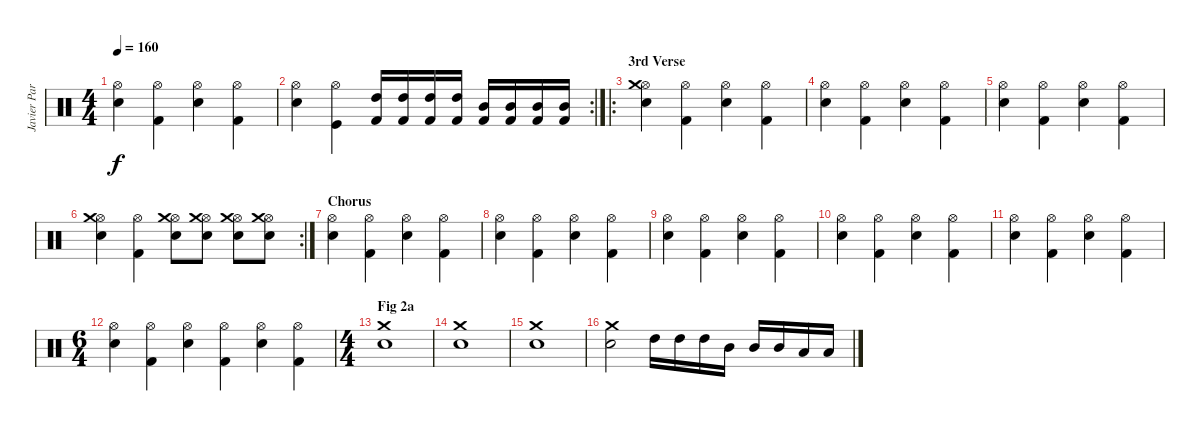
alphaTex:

\track ("Javier Partida" "Javier Par") {instrument percussion}
\staff {score}
\articulation defaults
\ts (4 4)
\tempo 160
\clef neutral
\ks c
("Hi-Hat (open)" "Snare (hit) 2").4{dy f} ("Hi-Hat (open)" "Kick (hit) 2").4 ("Hi-Hat (open)" "Snare (hit) 2").4 ("Hi-Hat (open)" "Kick (hit) 2").4 |
\rc 2
("Hi-Hat (open)" "Snare (hit) 2").4 ("Hi-Hat (open)" "Kick (hit)").4 ("Kick (hit) 2" "High Tom (hit)").16 ("Kick (hit) 2" "High Tom (hit)").16 ("Kick (hit) 2" "High Tom (hit)").16 ("Kick (hit) 2" "High Tom (hit)").16 ("Kick (hit) 2" "Mid Tom (hit)").16 ("Kick (hit) 2" "Mid Tom (hit)").16 ("Kick (hit) 2" "Mid Tom (hit)").16 ("Kick (hit) 2" "Mid Tom (hit)").16 |
\ro
\section ("" "3rd Verse")
("Hi-Hat (open)" "Snare (hit) 2" "Crash medium (hit)").4 ("Hi-Hat (open)" "Kick (hit) 2").4 ("Hi-Hat (open)" "Snare (hit) 2").4 ("Hi-Hat (open)" "Kick (hit) 2").4 |
("Hi-Hat (open)" "Snare (hit) 2").4 ("Hi-Hat (open)" "Kick (hit) 2").4 ("Hi-Hat (open)" "Snare (hit) 2").4 ("Hi-Hat (open)" "Kick (hit) 2").4 |
("Hi-Hat (open)" "Snare (hit) 2").4 ("Hi-Hat (open)" "Kick (hit) 2").4 ("Hi-Hat (open)" "Snare (hit) 2").4 ("Hi-Hat (open)" "Kick (hit) 2").4 |
\rc 2
("Hi-Hat (open)" "Snare (hit) 2" "Crash medium (hit)").4 ("Hi-Hat (open)" "Kick (hit) 2").4 ("Hi-Hat (open)" "Snare (hit) 2" "Crash medium (hit)").8 ("Hi-Hat (open)" "Snare (hit) 2" "Crash medium (hit)").8 ("Hi-Hat (open)" "Snare (hit) 2" "Crash medium (hit)").8 ("Hi-Hat (open)" "Snare (hit) 2" "Crash medium (hit)").8 |
\section ("" "Chorus")
("Hi-Hat (open)" "Snare (hit) 2").4 ("Hi-Hat (open)" "Kick (hit) 2").4 ("Hi-Hat (open)" "Snare (hit) 2").4 ("Hi-Hat (open)" "Kick (hit) 2").4 |
("Hi-Hat (open)" "Snare (hit) 2").4 ("Hi-Hat (open)" "Kick (hit) 2").4 ("Hi-Hat (open)" "Snare (hit) 2").4 ("Hi-Hat (open)" "Kick (hit) 2").4 |
("Hi-Hat (open)" "Snare (hit) 2").4 ("Hi-Hat (open)" "Kick (hit) 2").4 ("Hi-Hat (open)" "Snare (hit) 2").4 ("Hi-Hat (open)" "Kick (hit) 2").4 |
("Hi-Hat (open)" "Snare (hit) 2").4 ("Hi-Hat (open)" "Kick (hit) 2").4 ("Hi-Hat (open)" "Snare (hit) 2").4 ("Hi-Hat (open)" "Kick (hit) 2").4 |
("Hi-Hat (open)" "Snare (hit) 2").4 ("Hi-Hat (open)" "Kick (hit) 2").4 ("Hi-Hat (open)" "Snare (hit) 2").4 ("Hi-Hat (open)" "Kick (hit) 2").4 |
\ts (6 4)
("Hi-Hat (open)" "Snare (hit) 2").4 ("Hi-Hat (open)" "Kick (hit) 2").4 ("Hi-Hat (open)" "Snare (hit) 2").4 ("Hi-Hat (open)" "Kick (hit) 2").4 ("Hi-Hat (open)" "Snare (hit) 2").4 ("Hi-Hat (open)" "Kick (hit) 2").4 |
\ts (4 4)
\section ("" "Fig 2a ")
("Crash medium (hit)" "Snare (hit) 2").1 |
("Crash medium (hit)" "Snare (hit) 2").1 |
("Crash medium (hit)" "Snare (hit) 2").1 |
("Crash medium (hit)" "Snare (hit) 2").2 "High Tom (hit)".16 "High Tom (hit)".16 "High Tom (hit)".16 "Mid Tom (hit)".16 "Mid Tom (hit)".16 "Mid Tom (hit)".16 "Low Tom (hit)".16 "Low Tom (hit)".16
